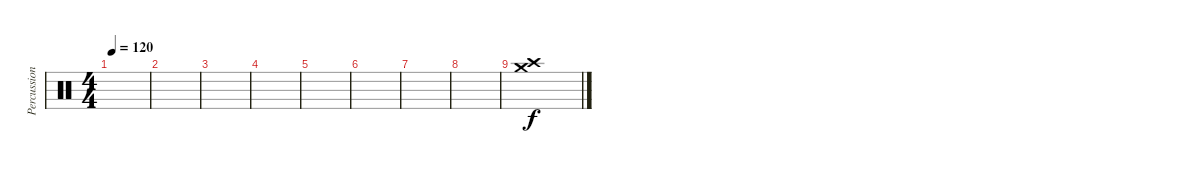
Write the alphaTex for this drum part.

\track ("Percussion" "Percussion") {instrument percussion}
\staff {score}
\articulation defaults
\ts (4 4)
\tempo 120
\clef neutral
\ks c
|
|
|
|
|
|
|
|
("Crash high (hit)" "Crash medium (hit)").1
